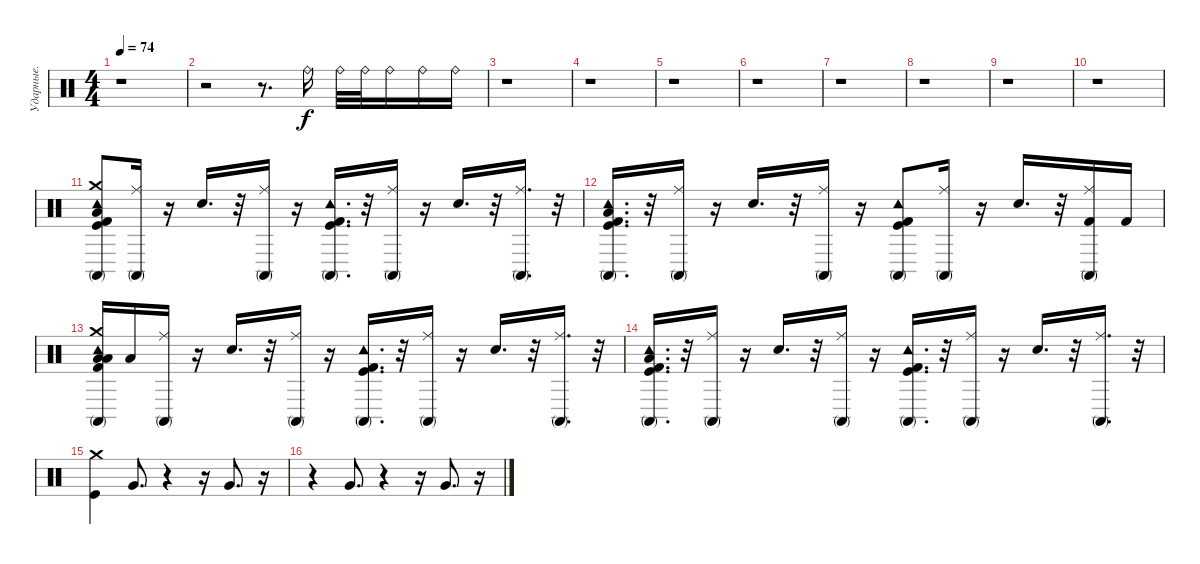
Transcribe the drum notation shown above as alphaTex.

\track ("Ударные." "Ударные.") {instrument percussion}
\staff {score}
\articulation defaults
\ts (4 4)
\tempo 74
\clef neutral
\ks c
r.1{dy f} |
r.2 r.8{d} "Ride (bell)".16 "Ride (bell)".32 "Ride (bell)".32 "Ride (bell)".16 "Ride (bell)".16 "Ride (bell)".16 |
r.1 |
r.1 |
r.1 |
r.1 |
r.1 |
r.1 |
r.1 |
r.1 |
("Crash medium (hit)" "Low Floor Tom (hit)" "Conga high (mute)" "Tambourine (hit)" "Kick (hit) 2" "Kick (hit)").8 ("Conga high (mute)" "Ride (middle)").16 r.16 "Snare (hit) 2".16{d} r.32 ("Conga high (mute)" "Ride (middle)").16 r.16 ("Conga high (mute)" "Tambourine (hit)" "Kick (hit) 2" "Kick (hit)").16{d} r.32 ("Conga high (mute)" "Ride (middle)").16 r.16 "Snare (hit) 2".16{d} r.32 ("Conga high (mute)" "Ride (middle)").16{d} r.32 |
("Low Floor Tom (hit)" "Conga high (mute)" "Tambourine (hit)" "Kick (hit) 2" "Kick (hit)").16{d} r.32 ("Conga high (mute)" "Ride (middle)").16 r.16 "Snare (hit) 2".16{d} r.32 ("Conga high (mute)" "Ride (middle)").16 r.16 ("Conga high (mute)" "Tambourine (hit)" "Kick (hit) 2" "Kick (hit)").8 ("Conga high (mute)" "Ride (middle)").16 r.16 "Snare (hit) 2".16{d} r.32 ("Kick (hit) 2" "Conga high (mute)" "Ride (middle)").16 "Kick (hit) 2".16 |
("Low Tom (hit)" "Crash medium (hit)" "Low Floor Tom (hit)" "Conga high (mute)" "Tambourine (hit)" "Kick (hit) 2").16 "Low Floor Tom (hit)".16 ("Conga high (mute)" "Ride (middle)").16 r.16 "Snare (hit) 2".16{d} r.32 ("Conga high (mute)" "Ride (middle)").16 r.16 ("Conga high (mute)" "Tambourine (hit)" "Kick (hit) 2" "Kick (hit)").16{d} r.32 ("Conga high (mute)" "Ride (middle)").16 r.16 "Snare (hit) 2".16{d} r.32 ("Conga high (mute)" "Ride (middle)").16{d} r.32 |
("Low Floor Tom (hit)" "Conga high (mute)" "Tambourine (hit)" "Kick (hit) 2" "Kick (hit)").16{d} r.32 ("Conga high (mute)" "Ride (middle)").16 r.16 "Snare (hit) 2".16{d} r.32 ("Conga high (mute)" "Ride (middle)").16 r.16 ("Conga high (mute)" "Tambourine (hit)" "Kick (hit) 2" "Kick (hit)").16{d} r.32 ("Conga high (mute)" "Ride (middle)").16 r.16 "Snare (hit) 2".16{d} r.32 ("Conga high (mute)" "Ride (middle)").16{d} r.32 |
("Kick (hit)" "Crash medium (hit)").4 "Very Low Tom (hit)".8{d} r.4 r.16 "Very Low Tom (hit)".8{d} r.16 |
r.4 "Very Low Tom (hit)".8{d} r.4 r.16 "Very Low Tom (hit)".8{d} r.16
